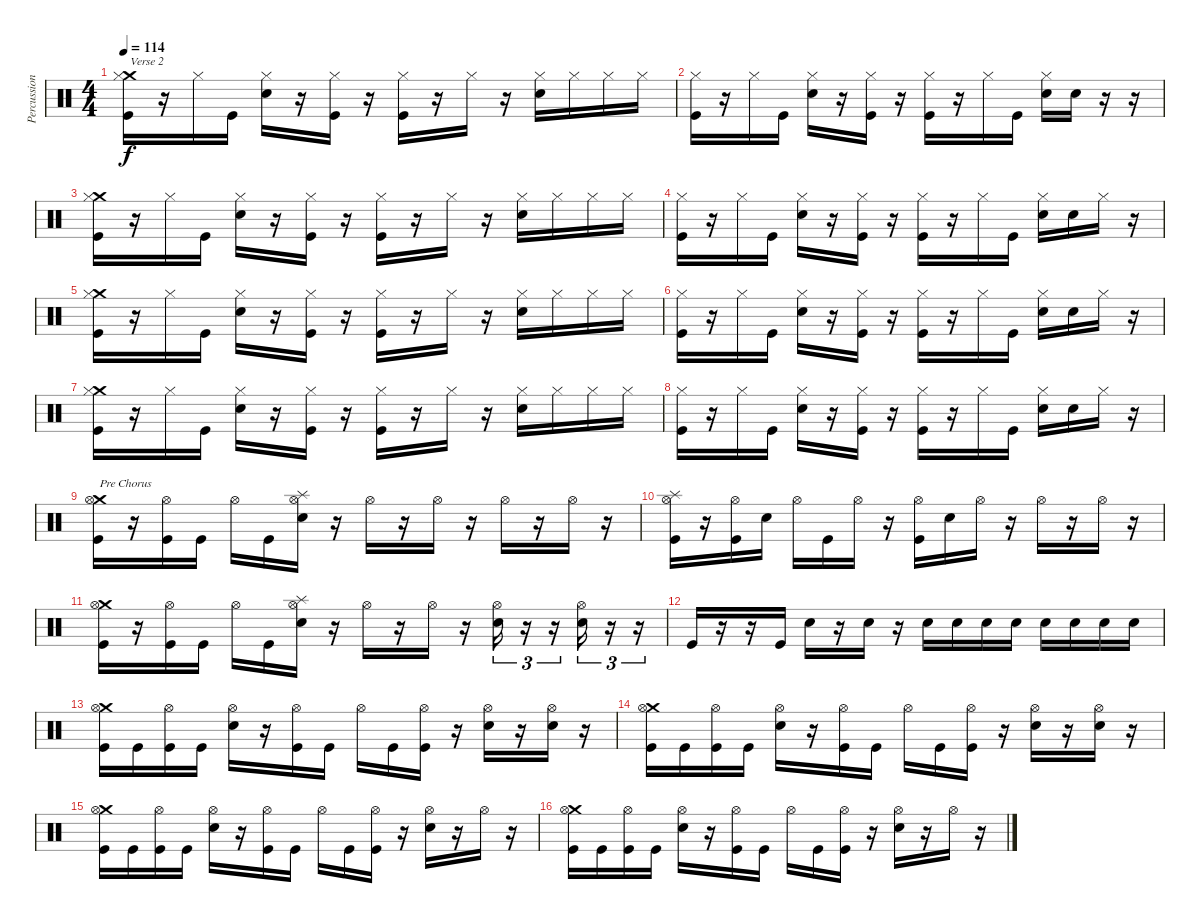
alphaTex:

\track ("Percussion" "Percussion") {instrument percussion}
\staff {score}
\articulation defaults
\ts (4 4)
\tempo 114
\clef neutral
\ks c
("Crash medium (hit)" "Hi-Hat (closed)" "Kick (hit)").16{txt "Verse 2" dy f} r.16 "Hi-Hat (closed)".16 "Kick (hit)".16 ("Hi-Hat (closed)" "Electric Snare (hit)").16 r.16 ("Hi-Hat (closed)" "Kick (hit)").16 r.16 ("Hi-Hat (closed)" "Kick (hit)").16 r.16 "Hi-Hat (closed)".16 r.16 ("Hi-Hat (closed)" "Electric Snare (hit)").16 "Hi-Hat (closed)".16 "Hi-Hat (closed)".16 "Hi-Hat (closed)".16 |
("Hi-Hat (closed)" "Kick (hit)").16 r.16 "Hi-Hat (closed)".16 "Kick (hit)".16 ("Hi-Hat (closed)" "Electric Snare (hit)").16 r.16 ("Hi-Hat (closed)" "Kick (hit)").16 r.16 ("Hi-Hat (closed)" "Kick (hit)").16 r.16 "Hi-Hat (closed)".16 "Kick (hit)".16 ("Hi-Hat (closed)" "Electric Snare (hit)").16 "Electric Snare (hit)".16 r.16 r.16 |
("Crash medium (hit)" "Hi-Hat (closed)" "Kick (hit)").16 r.16 "Hi-Hat (closed)".16 "Kick (hit)".16 ("Hi-Hat (closed)" "Electric Snare (hit)").16 r.16 ("Hi-Hat (closed)" "Kick (hit)").16 r.16 ("Hi-Hat (closed)" "Kick (hit)").16 r.16 "Hi-Hat (closed)".16 r.16 ("Hi-Hat (closed)" "Electric Snare (hit)").16 "Hi-Hat (closed)".16 "Hi-Hat (closed)".16 "Hi-Hat (closed)".16 |
("Hi-Hat (closed)" "Kick (hit)").16 r.16 "Hi-Hat (closed)".16 "Kick (hit)".16 ("Hi-Hat (closed)" "Electric Snare (hit)").16 r.16 ("Hi-Hat (closed)" "Kick (hit)").16 r.16 ("Hi-Hat (closed)" "Kick (hit)").16 r.16 "Hi-Hat (closed)".16 "Kick (hit)".16 ("Hi-Hat (closed)" "Electric Snare (hit)").16 "Electric Snare (hit)".16 "Hi-Hat (closed)".16 r.16 |
("Crash medium (hit)" "Hi-Hat (closed)" "Kick (hit)").16 r.16 "Hi-Hat (closed)".16 "Kick (hit)".16 ("Hi-Hat (closed)" "Electric Snare (hit)").16 r.16 ("Hi-Hat (closed)" "Kick (hit)").16 r.16 ("Hi-Hat (closed)" "Kick (hit)").16 r.16 "Hi-Hat (closed)".16 r.16 ("Hi-Hat (closed)" "Electric Snare (hit)").16 "Hi-Hat (closed)".16 "Hi-Hat (closed)".16 "Hi-Hat (closed)".16 |
("Hi-Hat (closed)" "Kick (hit)").16 r.16 "Hi-Hat (closed)".16 "Kick (hit)".16 ("Hi-Hat (closed)" "Electric Snare (hit)").16 r.16 ("Hi-Hat (closed)" "Kick (hit)").16 r.16 ("Hi-Hat (closed)" "Kick (hit)").16 r.16 "Hi-Hat (closed)".16 "Kick (hit)".16 ("Hi-Hat (closed)" "Electric Snare (hit)").16 "Electric Snare (hit)".16 "Hi-Hat (closed)".16 r.16 |
("Crash medium (hit)" "Hi-Hat (closed)" "Kick (hit)").16 r.16 "Hi-Hat (closed)".16 "Kick (hit)".16 ("Hi-Hat (closed)" "Electric Snare (hit)").16 r.16 ("Hi-Hat (closed)" "Kick (hit)").16 r.16 ("Hi-Hat (closed)" "Kick (hit)").16 r.16 "Hi-Hat (closed)".16 r.16 ("Hi-Hat (closed)" "Electric Snare (hit)").16 "Hi-Hat (closed)".16 "Hi-Hat (closed)".16 "Hi-Hat (closed)".16 |
("Hi-Hat (closed)" "Kick (hit)").16 r.16 "Hi-Hat (closed)".16 "Kick (hit)".16 ("Hi-Hat (closed)" "Electric Snare (hit)").16 r.16 ("Hi-Hat (closed)" "Kick (hit)").16 r.16 ("Hi-Hat (closed)" "Kick (hit)").16 r.16 "Hi-Hat (closed)".16 "Kick (hit)".16 ("Hi-Hat (closed)" "Electric Snare (hit)").16 "Electric Snare (hit)".16 "Hi-Hat (closed)".16 r.16 |
("Crash medium (hit)" "Hi-Hat (open)" "Kick (hit)").16{txt "Pre Chorus"} r.16 ("Hi-Hat (open)" "Kick (hit)").16 "Kick (hit)".16 "Hi-Hat (open)".16 "Kick (hit)".16 ("Splash (hit)" "Hi-Hat (open)" "Electric Snare (hit)").16 r.16 "Hi-Hat (open)".16 r.16 "Hi-Hat (open)".16 r.16 "Hi-Hat (open)".16 r.16 "Hi-Hat (open)".16 r.16 |
("Splash (hit)" "Hi-Hat (open)" "Kick (hit)").16 r.16 ("Hi-Hat (open)" "Kick (hit)").16 "Electric Snare (hit)".16 "Hi-Hat (open)".16 "Kick (hit)".16 "Hi-Hat (open)".16 r.16 ("Hi-Hat (open)" "Kick (hit)").16 "Electric Snare (hit)".16 "Hi-Hat (open)".16 r.16 "Hi-Hat (open)".16 r.16 "Hi-Hat (open)".16 r.16 |
("Crash medium (hit)" "Hi-Hat (open)" "Kick (hit)").16 r.16 ("Hi-Hat (open)" "Kick (hit)").16 "Kick (hit)".16 "Hi-Hat (open)".16 "Kick (hit)".16 ("Splash (hit)" "Hi-Hat (open)" "Electric Snare (hit)").16 r.16 "Hi-Hat (open)".16 r.16 "Hi-Hat (open)".16 r.16 ("Hi-Hat (open)" "Electric Snare (hit)").16{tu (3 2)} r.16{tu (3 2)} r.16{tu (3 2)} ("Hi-Hat (open)" "Electric Snare (hit)").16{tu (3 2)} r.16{tu (3 2)} r.16{tu (3 2)} |
"Kick (hit)".16 r.16 r.16 "Kick (hit)".16 "Electric Snare (hit)".16 r.16 "Electric Snare (hit)".16 r.16 "Electric Snare (hit)".16 "Electric Snare (hit)".16 "Electric Snare (hit)".16 "Electric Snare (hit)".16 "Electric Snare (hit)".16 "Electric Snare (hit)".16 "Electric Snare (hit)".16 "Electric Snare (hit)".16 |
("Crash medium (hit)" "Hi-Hat (open)" "Kick (hit)").16 "Kick (hit)".16 ("Hi-Hat (open)" "Kick (hit)").16 "Kick (hit)".16 ("Hi-Hat (open)" "Electric Snare (hit)").16 r.16 ("Hi-Hat (open)" "Kick (hit)").16 "Kick (hit)".16 "Hi-Hat (open)".16 "Kick (hit)".16 ("Hi-Hat (open)" "Kick (hit)").16 r.16 ("Hi-Hat (open)" "Electric Snare (hit)").16 r.16 ("Hi-Hat (open)" "Electric Snare (hit)").16 r.16 |
("Crash medium (hit)" "Hi-Hat (open)" "Kick (hit)").16 "Kick (hit)".16 ("Hi-Hat (open)" "Kick (hit)").16 "Kick (hit)".16 ("Hi-Hat (open)" "Electric Snare (hit)").16 r.16 ("Hi-Hat (open)" "Kick (hit)").16 "Kick (hit)".16 "Hi-Hat (open)".16 "Kick (hit)".16 ("Hi-Hat (open)" "Kick (hit)").16 r.16 ("Hi-Hat (open)" "Electric Snare (hit)").16 r.16 ("Hi-Hat (open)" "Electric Snare (hit)").16 r.16 |
("Crash medium (hit)" "Hi-Hat (open)" "Kick (hit)").16 "Kick (hit)".16 ("Hi-Hat (open)" "Kick (hit)").16 "Kick (hit)".16 ("Hi-Hat (open)" "Electric Snare (hit)").16 r.16 ("Hi-Hat (open)" "Kick (hit)").16 "Kick (hit)".16 "Hi-Hat (open)".16 "Kick (hit)".16 ("Hi-Hat (open)" "Kick (hit)").16 r.16 ("Hi-Hat (open)" "Electric Snare (hit)").16 r.16 "Hi-Hat (open)".16 r.16 |
("Crash medium (hit)" "Hi-Hat (open)" "Kick (hit)").16 "Kick (hit)".16 ("Hi-Hat (open)" "Kick (hit)").16 "Kick (hit)".16 ("Hi-Hat (open)" "Electric Snare (hit)").16 r.16 ("Hi-Hat (open)" "Kick (hit)").16 "Kick (hit)".16 "Hi-Hat (open)".16 "Kick (hit)".16 ("Hi-Hat (open)" "Kick (hit)").16 r.16 ("Hi-Hat (open)" "Electric Snare (hit)").16 r.16 "Hi-Hat (open)".16 r.16
